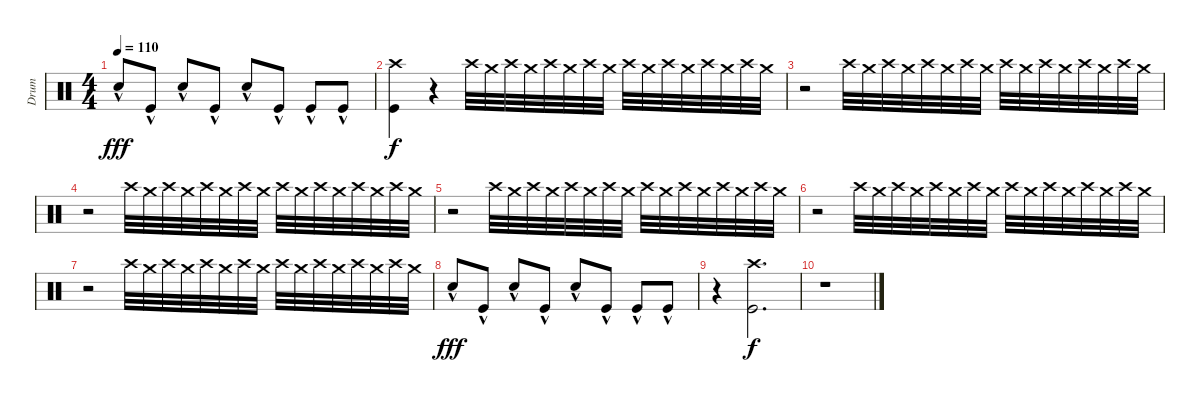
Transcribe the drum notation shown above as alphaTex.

\track ("Drum" "Drum") {instrument percussion}
\staff {score}
\articulation defaults
\ts (4 4)
\tempo 110
\clef neutral
\ks c "Snare (hit) 2"{hac}.8{dy fff} "Kick (hit)"{hac}.8 "Snare (hit) 2"{hac}.8 "Kick (hit)"{hac}.8 "Snare (hit) 2"{hac}.8 "Kick (hit)"{hac}.8 "Kick (hit)"{hac}.8 "Kick (hit)"{hac}.8
|
("Crash high (hit)" "Kick (hit)").4{dy f} r.4 "Crash high (hit)".32{volume 4} "Crash medium (hit)".32 "Crash high (hit)".32 "Crash medium (hit)".32 "Crash high (hit)".32 "Crash medium (hit)".32 "Crash high (hit)".32 "Crash medium (hit)".32 "Crash high (hit)".32{volume 11} "Crash medium (hit)".32 "Crash high (hit)".32 "Crash medium (hit)".32 "Crash high (hit)".32 "Crash medium (hit)".32 "Crash high (hit)".32 "Crash medium (hit)".32 |
r.2 "Crash high (hit)".32{volume 5} "Crash medium (hit)".32 "Crash high (hit)".32 "Crash medium (hit)".32 "Crash high (hit)".32 "Crash medium (hit)".32 "Crash high (hit)".32 "Crash medium (hit)".32 "Crash high (hit)".32 "Crash medium (hit)".32 "Crash high (hit)".32 "Crash medium (hit)".32 "Crash high (hit)".32 "Crash medium (hit)".32 "Crash high (hit)".32 "Crash medium (hit)".32 |
r.2 "Crash high (hit)".32{volume 7} "Crash medium (hit)".32 "Crash high (hit)".32 "Crash medium (hit)".32 "Crash high (hit)".32 "Crash medium (hit)".32 "Crash high (hit)".32 "Crash medium (hit)".32 "Crash high (hit)".32 "Crash medium (hit)".32 "Crash high (hit)".32 "Crash medium (hit)".32 "Crash high (hit)".32 "Crash medium (hit)".32 "Crash high (hit)".32 "Crash medium (hit)".32 |
r.2 "Crash high (hit)".32{volume 12} "Crash medium (hit)".32 "Crash high (hit)".32 "Crash medium (hit)".32 "Crash high (hit)".32 "Crash medium (hit)".32 "Crash high (hit)".32 "Crash medium (hit)".32 "Crash high (hit)".32 "Crash medium (hit)".32 "Crash high (hit)".32 "Crash medium (hit)".32 "Crash high (hit)".32 "Crash medium (hit)".32 "Crash high (hit)".32 "Crash medium (hit)".32 |
r.2 "Crash high (hit)".32{volume 12} "Crash medium (hit)".32 "Crash high (hit)".32 "Crash medium (hit)".32 "Crash high (hit)".32 "Crash medium (hit)".32 "Crash high (hit)".32 "Crash medium (hit)".32 "Crash high (hit)".32 "Crash medium (hit)".32 "Crash high (hit)".32 "Crash medium (hit)".32 "Crash high (hit)".32 "Crash medium (hit)".32 "Crash high (hit)".32 "Crash medium (hit)".32 |
r.2 "Crash high (hit)".32{volume 12} "Crash medium (hit)".32 "Crash high (hit)".32 "Crash medium (hit)".32 "Crash high (hit)".32 "Crash medium (hit)".32 "Crash high (hit)".32 "Crash medium (hit)".32 "Crash high (hit)".32 "Crash medium (hit)".32 "Crash high (hit)".32 "Crash medium (hit)".32 "Crash high (hit)".32 "Crash medium (hit)".32 "Crash high (hit)".32 "Crash medium (hit)".32 |
"Snare (hit) 2"{hac}.8{dy fff volume 16} "Kick (hit)"{hac}.8 "Snare (hit) 2"{hac}.8 "Kick (hit)"{hac}.8 "Snare (hit) 2"{hac}.8 "Kick (hit)"{hac}.8 "Kick (hit)"{hac}.8 "Kick (hit)"{hac}.8 |
r.4 ("Crash high (hit)" "Kick (hit)").2{d dy f} |
r.1
